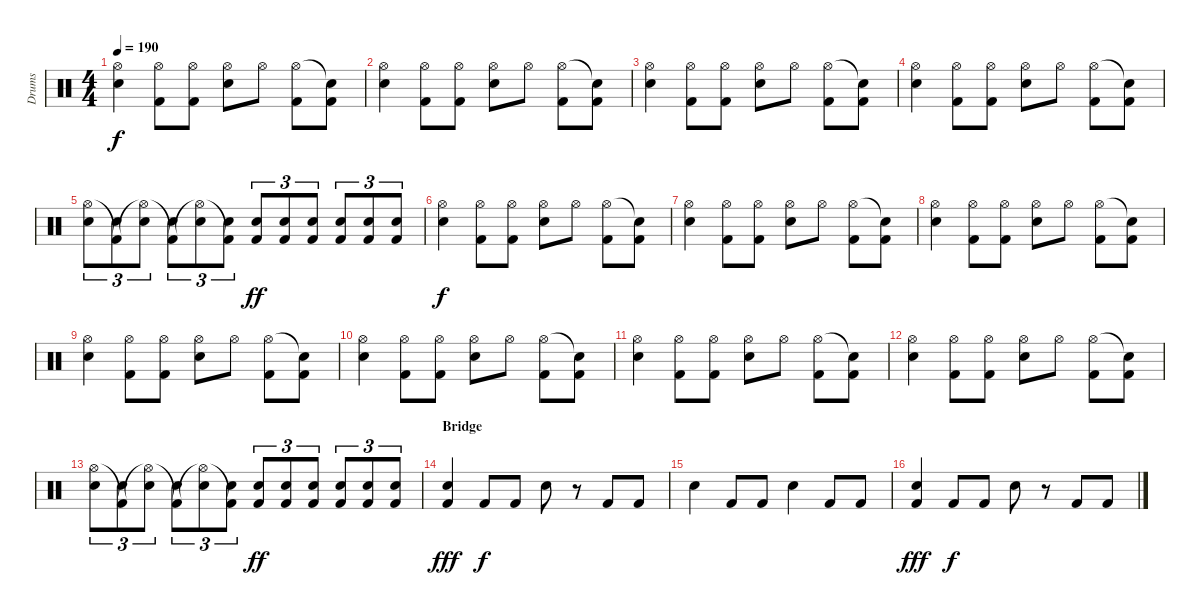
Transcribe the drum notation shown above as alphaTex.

\track ("Drums" "Drums") {instrument percussion}
\staff {score}
\articulation defaults
\ts (4 4)
\tempo 190
\clef neutral
\ks c
("Electric Snare (hit)" "Hi-Hat (open)").4{dy f} ("Hi-Hat (open)" "Kick (hit) 2").8 ("Hi-Hat (open)" "Kick (hit) 2").8 ("Hi-Hat (open)" "Electric Snare (hit)").8 "Hi-Hat (open)".8 ("Kick (hit) 2" "Hi-Hat (open)").8 ("Kick (hit) 2" "Snare (hit)"{t}).8 |
("Electric Snare (hit)" "Hi-Hat (open)").4 ("Hi-Hat (open)" "Kick (hit) 2").8 ("Hi-Hat (open)" "Kick (hit) 2").8 ("Hi-Hat (open)" "Electric Snare (hit)").8 "Hi-Hat (open)".8 ("Kick (hit) 2" "Hi-Hat (open)").8 ("Kick (hit) 2" "Snare (hit)"{t}).8 |
("Electric Snare (hit)" "Hi-Hat (open)").4 ("Hi-Hat (open)" "Kick (hit) 2").8 ("Hi-Hat (open)" "Kick (hit) 2").8 ("Hi-Hat (open)" "Electric Snare (hit)").8 "Hi-Hat (open)".8 ("Kick (hit) 2" "Hi-Hat (open)").8 ("Kick (hit) 2" "Snare (hit)"{t}).8 |
("Electric Snare (hit)" "Hi-Hat (open)").4 ("Hi-Hat (open)" "Kick (hit) 2").8 ("Hi-Hat (open)" "Kick (hit) 2").8 ("Hi-Hat (open)" "Electric Snare (hit)").8 "Hi-Hat (open)".8 ("Kick (hit) 2" "Hi-Hat (open)").8 ("Kick (hit) 2" "Snare (hit)"{t}).8 |
("Electric Snare (hit)" "Hi-Hat (open)").8{tu (3 2)} ("Electric Snare (hit)" "Kick (hit) 2"{t}).8{tu (3 2)} ("Electric Snare (hit)" "Hi-Hat (open)"{t}).8{tu (3 2)} ("Electric Snare (hit)" "Kick (hit) 2"{t}).8{tu (3 2)} ("Electric Snare (hit)" "Hi-Hat (open)"{t}).8{tu (3 2)} ("Electric Snare (hit)" "Kick (hit) 2"{t}).8{tu (3 2)} ("Electric Snare (hit)" "Kick (hit) 2").8{tu (3 2) dy ff} ("Electric Snare (hit)" "Kick (hit) 2").8{tu (3 2)} ("Electric Snare (hit)" "Kick (hit) 2").8{tu (3 2)} ("Electric Snare (hit)" "Kick (hit) 2").8{tu (3 2)} ("Electric Snare (hit)" "Kick (hit) 2").8{tu (3 2)} ("Electric Snare (hit)" "Kick (hit) 2").8{tu (3 2)} |
("Electric Snare (hit)" "Hi-Hat (open)").4{dy f} ("Hi-Hat (open)" "Kick (hit) 2").8 ("Hi-Hat (open)" "Kick (hit) 2").8 ("Hi-Hat (open)" "Electric Snare (hit)").8 "Hi-Hat (open)".8 ("Kick (hit) 2" "Hi-Hat (open)").8 ("Kick (hit) 2" "Snare (hit)"{t}).8 |
("Electric Snare (hit)" "Hi-Hat (open)").4 ("Hi-Hat (open)" "Kick (hit) 2").8 ("Hi-Hat (open)" "Kick (hit) 2").8 ("Hi-Hat (open)" "Electric Snare (hit)").8 "Hi-Hat (open)".8 ("Kick (hit) 2" "Hi-Hat (open)").8 ("Kick (hit) 2" "Snare (hit)"{t}).8 |
("Electric Snare (hit)" "Hi-Hat (open)").4 ("Hi-Hat (open)" "Kick (hit) 2").8 ("Hi-Hat (open)" "Kick (hit) 2").8 ("Hi-Hat (open)" "Electric Snare (hit)").8 "Hi-Hat (open)".8 ("Kick (hit) 2" "Hi-Hat (open)").8 ("Kick (hit) 2" "Snare (hit)"{t}).8 |
("Electric Snare (hit)" "Hi-Hat (open)").4 ("Hi-Hat (open)" "Kick (hit) 2").8 ("Hi-Hat (open)" "Kick (hit) 2").8 ("Hi-Hat (open)" "Electric Snare (hit)").8 "Hi-Hat (open)".8 ("Kick (hit) 2" "Hi-Hat (open)").8 ("Kick (hit) 2" "Snare (hit)"{t}).8 |
("Electric Snare (hit)" "Hi-Hat (open)").4 ("Hi-Hat (open)" "Kick (hit) 2").8 ("Hi-Hat (open)" "Kick (hit) 2").8 ("Hi-Hat (open)" "Electric Snare (hit)").8 "Hi-Hat (open)".8 ("Kick (hit) 2" "Hi-Hat (open)").8 ("Kick (hit) 2" "Snare (hit)"{t}).8 |
("Electric Snare (hit)" "Hi-Hat (open)").4 ("Hi-Hat (open)" "Kick (hit) 2").8 ("Hi-Hat (open)" "Kick (hit) 2").8 ("Hi-Hat (open)" "Electric Snare (hit)").8 "Hi-Hat (open)".8 ("Kick (hit) 2" "Hi-Hat (open)").8 ("Kick (hit) 2" "Snare (hit)"{t}).8 |
("Electric Snare (hit)" "Hi-Hat (open)").4 ("Hi-Hat (open)" "Kick (hit) 2").8 ("Hi-Hat (open)" "Kick (hit) 2").8 ("Hi-Hat (open)" "Electric Snare (hit)").8 "Hi-Hat (open)".8 ("Kick (hit) 2" "Hi-Hat (open)").8 ("Kick (hit) 2" "Snare (hit)"{t}).8 |
("Electric Snare (hit)" "Hi-Hat (open)").8{tu (3 2)} ("Electric Snare (hit)" "Kick (hit) 2"{t}).8{tu (3 2)} ("Electric Snare (hit)" "Hi-Hat (open)"{t}).8{tu (3 2)} ("Electric Snare (hit)" "Kick (hit) 2"{t}).8{tu (3 2)} ("Electric Snare (hit)" "Hi-Hat (open)"{t}).8{tu (3 2)} ("Electric Snare (hit)" "Kick (hit) 2"{t}).8{tu (3 2)} ("Electric Snare (hit)" "Kick (hit) 2").8{tu (3 2) dy ff} ("Electric Snare (hit)" "Kick (hit) 2").8{tu (3 2)} ("Electric Snare (hit)" "Kick (hit) 2").8{tu (3 2)} ("Electric Snare (hit)" "Kick (hit) 2").8{tu (3 2)} ("Electric Snare (hit)" "Kick (hit) 2").8{tu (3 2)} ("Electric Snare (hit)" "Kick (hit) 2").8{tu (3 2)} |
\section ("" "Bridge")
("Electric Snare (hit)" "Kick (hit) 2").4{dy fff} "Kick (hit) 2".8{dy f} "Kick (hit) 2".8 "Electric Snare (hit)".8 r.8 "Kick (hit) 2".8 "Kick (hit) 2".8 |
"Electric Snare (hit)".4 "Kick (hit) 2".8 "Kick (hit) 2".8 "Electric Snare (hit)".4 "Kick (hit) 2".8 "Kick (hit) 2".8 |
("Electric Snare (hit)" "Kick (hit) 2").4{dy fff} "Kick (hit) 2".8{dy f} "Kick (hit) 2".8 "Electric Snare (hit)".8 r.8 "Kick (hit) 2".8 "Kick (hit) 2".8
